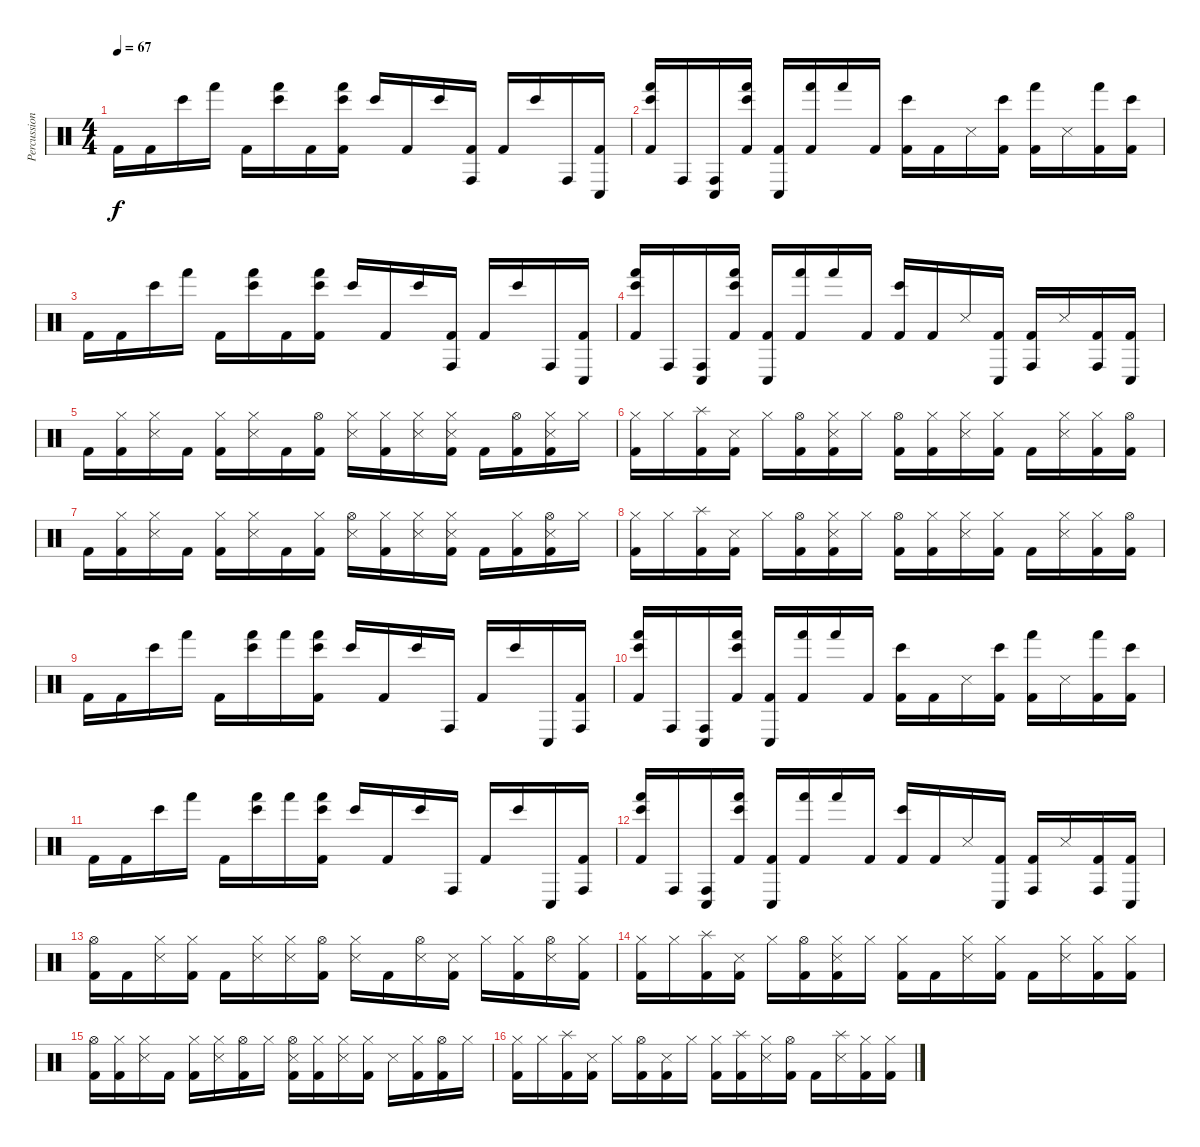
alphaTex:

\track ("Percussion" "Percussion") {instrument percussion}
\staff {score}
\articulation defaults
\ts (4 4)
\tempo 67
\clef neutral
\ks c "Kick (hit) 2".16{dy f} "Kick (hit) 2".16 "Bongo High (hit)".16 "Hand (hit)".16 "Kick (hit) 2".16
("Hand (hit)" "Bongo High (hit)").16 "Kick (hit) 2".16 ("Hand (hit)" "Bongo High (hit)" "Kick (hit) 2").16 "Bongo High (hit)".16 "Kick (hit) 2".16 "Bongo High (hit)".16 ("Conga high (hit)" "Kick (hit) 2").16 "Kick (hit) 2".16 "Bongo High (hit)".16 "Conga high (hit)".16 ("Conga low (hit)" "Kick (hit) 2").16 |
("Hand (hit)" "Bongo High (hit)" "Kick (hit) 2").16 "Conga high (hit)".16 ("Conga low (hit)" "Conga high (hit)").16 ("Hand (hit)" "Bongo High (hit)" "Kick (hit) 2").16 ("Conga low (hit)" "Kick (hit) 2").16 ("Hand (hit)" "Kick (hit) 2").16 "Hand (hit)".16 "Kick (hit) 2".16 ("Bongo High (hit)" "Kick (hit) 2").16 "Kick (hit) 2".16 "Snare (side stick) 3".16 ("Bongo High (hit)" "Kick (hit) 2").16 ("Hand (hit)" "Kick (hit) 2").16 "Snare (side stick) 3".16 ("Hand (hit)" "Kick (hit) 2").16 ("Bongo High (hit)" "Kick (hit) 2").16 |
"Kick (hit) 2".16 "Kick (hit) 2".16 "Bongo High (hit)".16 "Hand (hit)".16 "Kick (hit) 2".16 ("Hand (hit)" "Bongo High (hit)").16 "Kick (hit) 2".16 ("Hand (hit)" "Bongo High (hit)" "Kick (hit) 2").16 "Bongo High (hit)".16 "Kick (hit) 2".16 "Bongo High (hit)".16 ("Conga high (hit)" "Kick (hit) 2").16 "Kick (hit) 2".16 "Bongo High (hit)".16 "Conga high (hit)".16 ("Conga low (hit)" "Kick (hit) 2").16 |
("Hand (hit)" "Bongo High (hit)" "Kick (hit) 2").16 "Conga high (hit)".16 ("Conga low (hit)" "Conga high (hit)").16 ("Hand (hit)" "Bongo High (hit)" "Kick (hit) 2").16 ("Conga low (hit)" "Kick (hit) 2").16 ("Hand (hit)" "Kick (hit) 2").16 "Hand (hit)".16 "Kick (hit) 2".16 ("Bongo High (hit)" "Kick (hit) 2").16 "Kick (hit) 2".16 "Snare (side stick) 3".16 ("Conga low (hit)" "Kick (hit) 2").16 ("Conga high (hit)" "Kick (hit) 2").16 "Snare (side stick) 3".16 ("Conga high (hit)" "Kick (hit) 2").16 ("Conga low (hit)" "Kick (hit) 2").16 |
"Kick (hit) 2".16 ("Hi-Hat (closed)" "Kick (hit) 2").16 ("Hi-Hat (closed)" "Snare (side stick) 3").16 "Kick (hit) 2".16 ("Hi-Hat (closed)" "Kick (hit) 2").16 ("Hi-Hat (closed)" "Snare (side stick) 3").16 "Kick (hit) 2".16 ("Hi-Hat (open)" "Kick (hit) 2").16 ("Hi-Hat (closed)" "Snare (side stick) 3").16 ("Hi-Hat (closed)" "Kick (hit) 2").16 ("Hi-Hat (closed)" "Snare (side stick) 3").16 ("Hi-Hat (closed)" "Snare (side stick) 3" "Kick (hit) 2").16 "Kick (hit) 2".16 ("Hi-Hat (open)" "Kick (hit) 2").16 ("Hi-Hat (closed)" "Snare (side stick) 3" "Kick (hit) 2").16 "Hi-Hat (closed)".16 |
("Hi-Hat (closed)" "Kick (hit) 2").16 "Hi-Hat (closed)".16 ("Splash (hit)" "Kick (hit) 2").16 ("Snare (side stick) 3" "Kick (hit) 2").16 "Hi-Hat (closed)".16 ("Hi-Hat (open)" "Kick (hit) 2").16 ("Hi-Hat (closed)" "Snare (side stick) 3" "Kick (hit) 2").16 "Hi-Hat (closed)".16 ("Hi-Hat (open)" "Kick (hit) 2").16 ("Hi-Hat (closed)" "Kick (hit) 2").16 ("Hi-Hat (closed)" "Snare (side stick) 3").16 ("Hi-Hat (closed)" "Kick (hit) 2").16 "Kick (hit) 2".16 ("Hi-Hat (closed)" "Snare (side stick) 3").16 ("Hi-Hat (closed)" "Kick (hit) 2").16 ("Hi-Hat (open)" "Kick (hit) 2").16 |
"Kick (hit) 2".16 ("Hi-Hat (closed)" "Kick (hit) 2").16 ("Hi-Hat (closed)" "Snare (side stick) 3").16 "Kick (hit) 2".16 ("Hi-Hat (closed)" "Kick (hit) 2").16 ("Hi-Hat (closed)" "Snare (side stick) 3").16 "Kick (hit) 2".16 ("Hi-Hat (closed)" "Kick (hit) 2").16 ("Hi-Hat (open)" "Snare (side stick) 3").16 ("Hi-Hat (closed)" "Kick (hit) 2").16 ("Hi-Hat (closed)" "Snare (side stick) 3").16 ("Hi-Hat (closed)" "Snare (side stick) 3" "Kick (hit) 2").16 "Kick (hit) 2".16 ("Hi-Hat (closed)" "Kick (hit) 2").16 ("Hi-Hat (open)" "Snare (side stick) 3" "Kick (hit) 2").16 "Hi-Hat (closed)".16 |
("Hi-Hat (closed)" "Kick (hit) 2").16 "Hi-Hat (closed)".16 ("Splash (hit)" "Kick (hit) 2").16 ("Snare (side stick) 3" "Kick (hit) 2").16 "Hi-Hat (closed)".16 ("Hi-Hat (open)" "Kick (hit) 2").16 ("Hi-Hat (closed)" "Snare (side stick) 3" "Kick (hit) 2").16 "Hi-Hat (closed)".16 ("Hi-Hat (open)" "Kick (hit) 2").16 ("Hi-Hat (closed)" "Kick (hit) 2").16 ("Hi-Hat (closed)" "Snare (side stick) 3").16 ("Hi-Hat (closed)" "Kick (hit) 2").16 "Kick (hit) 2".16 ("Hi-Hat (closed)" "Snare (side stick) 3").16 ("Hi-Hat (closed)" "Kick (hit) 2").16 ("Hi-Hat (open)" "Kick (hit) 2").16 |
"Kick (hit) 2".16 "Kick (hit) 2".16 "Bongo High (hit)".16 "Hand (hit)".16 "Kick (hit) 2".16 ("Hand (hit)" "Bongo High (hit)").16 "Hand (hit)".16 ("Hand (hit)" "Bongo High (hit)" "Kick (hit) 2").16 "Bongo High (hit)".16 "Kick (hit) 2".16 "Bongo High (hit)".16 "Conga high (hit)".16 "Kick (hit) 2".16 "Bongo High (hit)".16 "Conga low (hit)".16 ("Conga high (hit)" "Kick (hit) 2").16 |
("Hand (hit)" "Bongo High (hit)" "Kick (hit) 2").16 "Conga high (hit)".16 ("Conga low (hit)" "Conga high (hit)").16 ("Hand (hit)" "Bongo High (hit)" "Kick (hit) 2").16 ("Conga low (hit)" "Kick (hit) 2").16 ("Hand (hit)" "Kick (hit) 2").16 "Hand (hit)".16 "Kick (hit) 2".16 ("Bongo High (hit)" "Kick (hit) 2").16 "Kick (hit) 2".16 "Snare (side stick) 3".16 ("Bongo High (hit)" "Kick (hit) 2").16 ("Hand (hit)" "Kick (hit) 2").16 "Snare (side stick) 3".16 ("Hand (hit)" "Kick (hit) 2").16 ("Bongo High (hit)" "Kick (hit) 2").16 |
"Kick (hit) 2".16 "Kick (hit) 2".16 "Bongo High (hit)".16 "Hand (hit)".16 "Kick (hit) 2".16 ("Hand (hit)" "Bongo High (hit)").16 "Hand (hit)".16 ("Hand (hit)" "Bongo High (hit)" "Kick (hit) 2").16 "Bongo High (hit)".16 "Kick (hit) 2".16 "Bongo High (hit)".16 "Conga high (hit)".16 "Kick (hit) 2".16 "Bongo High (hit)".16 "Conga low (hit)".16 ("Conga high (hit)" "Kick (hit) 2").16 |
("Hand (hit)" "Bongo High (hit)" "Kick (hit) 2").16 "Conga high (hit)".16 ("Conga low (hit)" "Conga high (hit)").16 ("Hand (hit)" "Bongo High (hit)" "Kick (hit) 2").16 ("Conga low (hit)" "Kick (hit) 2").16 ("Hand (hit)" "Kick (hit) 2").16 "Hand (hit)".16 "Kick (hit) 2".16 ("Bongo High (hit)" "Kick (hit) 2").16 "Kick (hit) 2".16 "Snare (side stick) 3".16 ("Conga low (hit)" "Kick (hit) 2").16 ("Conga high (hit)" "Kick (hit) 2").16 "Snare (side stick) 3".16 ("Conga high (hit)" "Kick (hit) 2").16 ("Conga low (hit)" "Kick (hit) 2").16 |
("Hi-Hat (open)" "Kick (hit) 2").16 "Kick (hit) 2".16 ("Hi-Hat (closed)" "Snare (side stick) 3").16 ("Hi-Hat (closed)" "Kick (hit) 2").16 "Kick (hit) 2".16 ("Hi-Hat (closed)" "Snare (side stick) 3").16 ("Hi-Hat (closed)" "Snare (side stick) 3").16 ("Hi-Hat (open)" "Kick (hit) 2").16 ("Hi-Hat (closed)" "Snare (side stick) 3").16 "Kick (hit) 2".16 ("Hi-Hat (open)" "Snare (side stick) 3").16 ("Snare (side stick) 3" "Kick (hit) 2").16 "Hi-Hat (closed)".16 ("Hi-Hat (closed)" "Kick (hit) 2").16 ("Hi-Hat (open)" "Snare (side stick) 3").16 ("Hi-Hat (closed)" "Kick (hit) 2").16 |
("Hi-Hat (closed)" "Kick (hit) 2").16 "Hi-Hat (closed)".16 ("Splash (hit)" "Kick (hit) 2").16 ("Snare (side stick) 3" "Kick (hit) 2").16 "Hi-Hat (closed)".16 ("Hi-Hat (open)" "Kick (hit) 2").16 ("Hi-Hat (closed)" "Snare (side stick) 3" "Kick (hit) 2").16 "Hi-Hat (closed)".16 ("Hi-Hat (closed)" "Kick (hit) 2").16 "Kick (hit) 2".16 ("Hi-Hat (closed)" "Snare (side stick) 3").16 ("Hi-Hat (closed)" "Kick (hit) 2").16 "Kick (hit) 2".16 ("Hi-Hat (closed)" "Snare (side stick) 3").16 ("Hi-Hat (closed)" "Kick (hit) 2").16 ("Hi-Hat (closed)" "Kick (hit) 2").16 |
("Hi-Hat (open)" "Kick (hit) 2").16 ("Hi-Hat (closed)" "Kick (hit) 2").16 ("Hi-Hat (closed)" "Snare (side stick) 3").16 "Kick (hit) 2".16 ("Hi-Hat (closed)" "Kick (hit) 2").16 ("Hi-Hat (closed)" "Snare (side stick) 3").16 ("Hi-Hat (open)" "Kick (hit) 2").16 "Hi-Hat (closed)".16 ("Hi-Hat (open)" "Snare (side stick) 3" "Kick (hit) 2").16 ("Hi-Hat (closed)" "Kick (hit) 2").16 ("Hi-Hat (closed)" "Snare (side stick) 3").16 ("Hi-Hat (closed)" "Kick (hit) 2").16 "Snare (side stick) 3".16 ("Hi-Hat (closed)" "Kick (hit) 2").16 ("Hi-Hat (open)" "Kick (hit) 2").16 "Hi-Hat (closed)".16 |
("Hi-Hat (closed)" "Kick (hit) 2").16 "Hi-Hat (closed)".16 ("Splash (hit)" "Kick (hit) 2").16 ("Snare (side stick) 3" "Kick (hit) 2").16 "Hi-Hat (closed)".16 ("Hi-Hat (open)" "Kick (hit) 2").16 ("Snare (side stick) 3" "Kick (hit) 2").16 "Hi-Hat (closed)".16 ("Hi-Hat (closed)" "Kick (hit) 2").16 ("Splash (hit)" "Kick (hit) 2").16 ("Hi-Hat (closed)" "Snare (side stick) 3").16 ("Hi-Hat (open)" "Kick (hit) 2").16 "Kick (hit) 2".16 ("Splash (hit)" "Snare (side stick) 3").16 ("Hi-Hat (closed)" "Kick (hit) 2").16 ("Hi-Hat (closed)" "Kick (hit) 2").16
